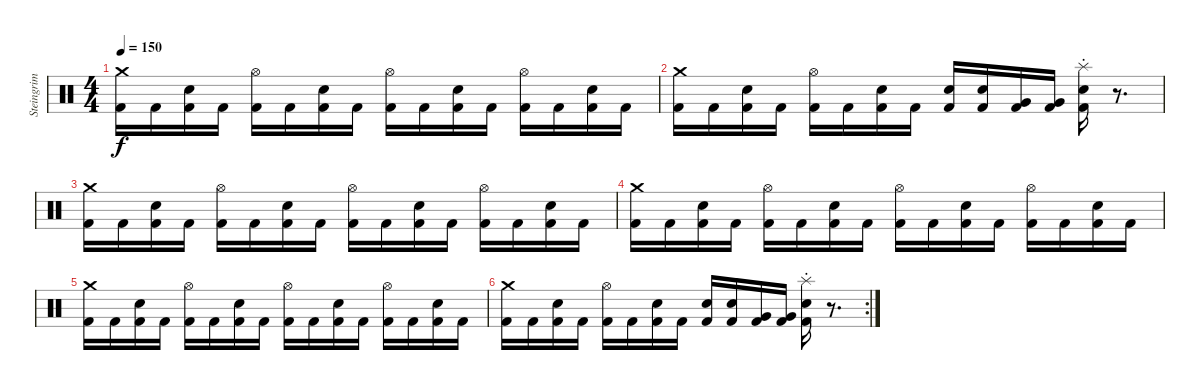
\track ("Steingrim" "Steingrim") {instrument percussion}
\staff {score}
\articulation defaults
\ts (4 4)
\tempo 150
\clef neutral
\ks c
("Crash medium (hit)" "Kick (hit) 2").16{dy f} "Kick (hit) 2".16 ("Snare (hit) 2" "Kick (hit) 2").16 "Kick (hit) 2".16 ("Hi-Hat (open)" "Kick (hit) 2").16 "Kick (hit) 2".16 ("Snare (hit) 2" "Kick (hit) 2").16 "Kick (hit) 2".16 ("Hi-Hat (open)" "Kick (hit) 2").16 "Kick (hit) 2".16 ("Snare (hit) 2" "Kick (hit) 2").16 "Kick (hit) 2".16 ("Hi-Hat (open)" "Kick (hit) 2").16 "Kick (hit) 2".16 ("Snare (hit) 2" "Kick (hit) 2").16 "Kick (hit) 2".16 |
("Crash medium (hit)" "Kick (hit) 2").16 "Kick (hit) 2".16 ("Snare (hit) 2" "Kick (hit) 2").16 "Kick (hit) 2".16 ("Hi-Hat (open)" "Kick (hit) 2").16 "Kick (hit) 2".16 ("Snare (hit) 2" "Kick (hit) 2").16 "Kick (hit) 2".16 ("Snare (hit) 2" "Kick (hit) 2").16 ("Snare (hit) 2" "Kick (hit) 2").16 ("Very Low Tom (hit)" "Kick (hit) 2").16 ("Very Low Tom (hit)" "Kick (hit) 2").16 ("Splash (hit)"{st} "Snare (hit) 2" "Kick (hit) 2").16 r.8{d} |
("Crash medium (hit)" "Kick (hit) 2").16 "Kick (hit) 2".16 ("Snare (hit) 2" "Kick (hit) 2").16 "Kick (hit) 2".16 ("Hi-Hat (open)" "Kick (hit) 2").16 "Kick (hit) 2".16 ("Snare (hit) 2" "Kick (hit) 2").16 "Kick (hit) 2".16 ("Hi-Hat (open)" "Kick (hit) 2").16 "Kick (hit) 2".16 ("Snare (hit) 2" "Kick (hit) 2").16 "Kick (hit) 2".16 ("Hi-Hat (open)" "Kick (hit) 2").16 "Kick (hit) 2".16 ("Snare (hit) 2" "Kick (hit) 2").16 "Kick (hit) 2".16 |
("Crash medium (hit)" "Kick (hit) 2").16 "Kick (hit) 2".16 ("Snare (hit) 2" "Kick (hit) 2").16 "Kick (hit) 2".16 ("Hi-Hat (open)" "Kick (hit) 2").16 "Kick (hit) 2".16 ("Snare (hit) 2" "Kick (hit) 2").16 "Kick (hit) 2".16 ("Hi-Hat (open)" "Kick (hit) 2").16 "Kick (hit) 2".16 ("Snare (hit) 2" "Kick (hit) 2").16 "Kick (hit) 2".16 ("Hi-Hat (open)" "Kick (hit) 2").16 "Kick (hit) 2".16 ("Snare (hit) 2" "Kick (hit) 2").16 "Kick (hit) 2".16 |
("Crash medium (hit)" "Kick (hit) 2").16 "Kick (hit) 2".16 ("Snare (hit) 2" "Kick (hit) 2").16 "Kick (hit) 2".16 ("Hi-Hat (open)" "Kick (hit) 2").16 "Kick (hit) 2".16 ("Snare (hit) 2" "Kick (hit) 2").16 "Kick (hit) 2".16 ("Hi-Hat (open)" "Kick (hit) 2").16 "Kick (hit) 2".16 ("Snare (hit) 2" "Kick (hit) 2").16 "Kick (hit) 2".16 ("Hi-Hat (open)" "Kick (hit) 2").16 "Kick (hit) 2".16 ("Snare (hit) 2" "Kick (hit) 2").16 "Kick (hit) 2".16 |
\rc 2
("Crash medium (hit)" "Kick (hit) 2").16 "Kick (hit) 2".16 ("Snare (hit) 2" "Kick (hit) 2").16 "Kick (hit) 2".16 ("Hi-Hat (open)" "Kick (hit) 2").16 "Kick (hit) 2".16 ("Snare (hit) 2" "Kick (hit) 2").16 "Kick (hit) 2".16 ("Snare (hit) 2" "Kick (hit) 2").16 ("Snare (hit) 2" "Kick (hit) 2").16 ("Very Low Tom (hit)" "Kick (hit) 2").16 ("Very Low Tom (hit)" "Kick (hit) 2").16 ("Splash (hit)"{st} "Snare (hit) 2" "Kick (hit) 2").16 r.8{d}
